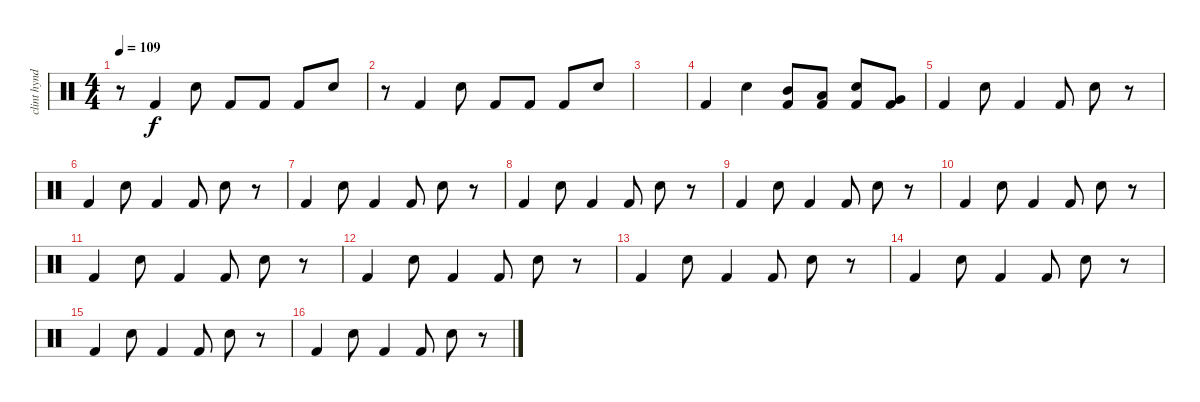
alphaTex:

\track ("clint hyndman" "clint hynd") {instrument percussion}
\staff {score}
\articulation defaults
\ts (4 4)
\tempo 109
\clef neutral
\ks c
r.8{dy f} "Kick (hit) 2".4 "Electric Snare (hit)".8 "Kick (hit) 2".8 "Kick (hit) 2".8 "Kick (hit) 2".8 "Electric Snare (hit)".8 |
r.8 "Kick (hit) 2".4 "Electric Snare (hit)".8 "Kick (hit) 2".8 "Kick (hit) 2".8 "Kick (hit) 2".8 "Electric Snare (hit)".8 |
|
"Kick (hit) 2".4 "Electric Snare (hit)".4 ("Mid Tom (hit)" "Kick (hit) 2").8 ("Low Tom (hit)" "Kick (hit) 2").8 ("Electric Snare (hit)" "Kick (hit) 2").8 ("Very Low Tom (hit)" "Kick (hit) 2").8 |
"Kick (hit) 2".4 "Electric Snare (hit)".8 "Kick (hit) 2".4 "Kick (hit) 2".8 "Electric Snare (hit)".8 r.8 |
"Kick (hit) 2".4 "Electric Snare (hit)".8 "Kick (hit) 2".4 "Kick (hit) 2".8 "Electric Snare (hit)".8 r.8 |
"Kick (hit) 2".4 "Electric Snare (hit)".8 "Kick (hit) 2".4 "Kick (hit) 2".8 "Electric Snare (hit)".8 r.8 |
"Kick (hit) 2".4 "Electric Snare (hit)".8 "Kick (hit) 2".4 "Kick (hit) 2".8 "Electric Snare (hit)".8 r.8 |
"Kick (hit) 2".4 "Electric Snare (hit)".8 "Kick (hit) 2".4 "Kick (hit) 2".8 "Electric Snare (hit)".8 r.8 |
"Kick (hit) 2".4 "Electric Snare (hit)".8 "Kick (hit) 2".4 "Kick (hit) 2".8 "Electric Snare (hit)".8 r.8 |
"Kick (hit) 2".4 "Electric Snare (hit)".8 "Kick (hit) 2".4 "Kick (hit) 2".8 "Electric Snare (hit)".8 r.8 |
"Kick (hit) 2".4 "Electric Snare (hit)".8 "Kick (hit) 2".4 "Kick (hit) 2".8 "Electric Snare (hit)".8 r.8 |
"Kick (hit) 2".4 "Electric Snare (hit)".8 "Kick (hit) 2".4 "Kick (hit) 2".8 "Electric Snare (hit)".8 r.8 |
"Kick (hit) 2".4 "Electric Snare (hit)".8 "Kick (hit) 2".4 "Kick (hit) 2".8 "Electric Snare (hit)".8 r.8 |
"Kick (hit) 2".4 "Electric Snare (hit)".8 "Kick (hit) 2".4 "Kick (hit) 2".8 "Electric Snare (hit)".8 r.8 |
"Kick (hit) 2".4 "Electric Snare (hit)".8 "Kick (hit) 2".4 "Kick (hit) 2".8 "Electric Snare (hit)".8 r.8
